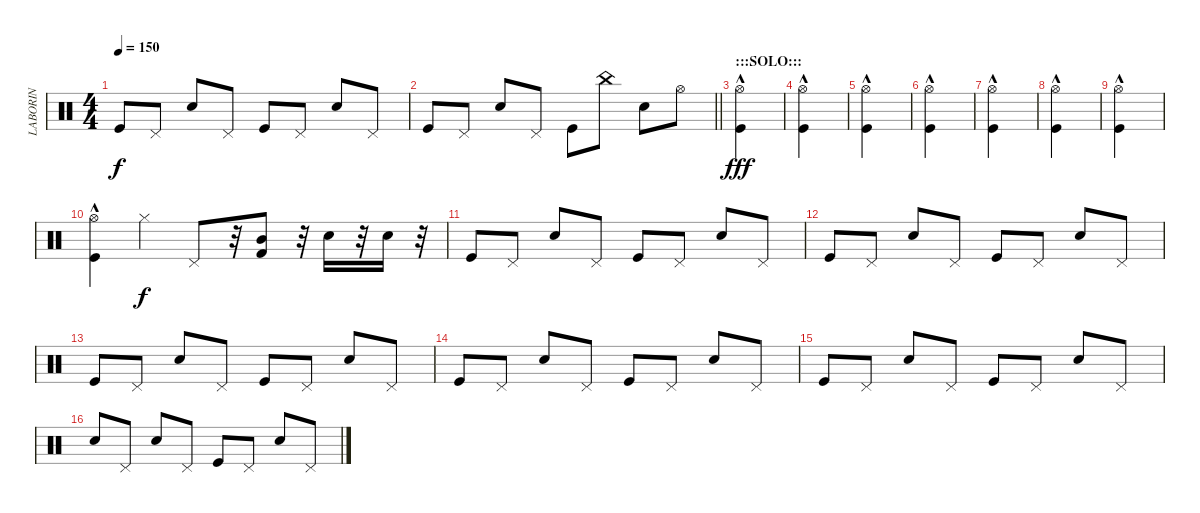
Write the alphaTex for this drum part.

\track ("LABORIN" "LABORIN") {instrument percussion}
\staff {score}
\articulation defaults
\ts (4 4)
\tempo 150
\clef neutral
\ks c "Kick (hit)".8{dy f} "Pedal Hi-Hat (hit)".8 "Snare (hit) 2".8 "Pedal Hi-Hat (hit)".8 "Kick (hit)".8 "Pedal Hi-Hat (hit)".8 "Snare (hit) 2".8 "Pedal Hi-Hat (hit)".8
|
\barLineRight lightlight "Kick (hit)".8 "Pedal Hi-Hat (hit)".8 "Snare (hit) 2".8 "Pedal Hi-Hat (hit)".8 "Kick (hit)".8 "China (hit)".8 "Snare (hit) 2".8 "Hi-Hat (open)".8
|
\section ("" ":::SOLO:::")
("Hi-Hat (open)"{hac} "Kick (hit)"{hac}).4{dy fff} |
("Hi-Hat (open)"{hac} "Kick (hit)"{hac}).4 |
("Hi-Hat (open)"{hac} "Kick (hit)"{hac}).4 |
("Hi-Hat (open)"{hac} "Kick (hit)"{hac}).4 |
("Hi-Hat (open)"{hac} "Kick (hit)"{hac}).4 |
("Hi-Hat (open)"{hac} "Kick (hit)"{hac}).4 |
("Hi-Hat (open)"{hac} "Kick (hit)"{hac}).4 |
("Hi-Hat (open)"{hac} "Kick (hit)"{hac}).4 "Hi-Hat (closed)".4{dy f} "Pedal Hi-Hat (hit)".8 r.32 ("Mid Tom (hit)" "Kick (hit) 2").8 r.32 "Snare (hit) 2".16 r.32 "Snare (hit) 2".16 r.32 |
"Kick (hit)".8 "Pedal Hi-Hat (hit)".8 "Snare (hit) 2".8 "Pedal Hi-Hat (hit)".8 "Kick (hit)".8 "Pedal Hi-Hat (hit)".8 "Snare (hit) 2".8 "Pedal Hi-Hat (hit)".8 |
"Kick (hit)".8 "Pedal Hi-Hat (hit)".8 "Snare (hit) 2".8 "Pedal Hi-Hat (hit)".8 "Kick (hit)".8 "Pedal Hi-Hat (hit)".8 "Snare (hit) 2".8 "Pedal Hi-Hat (hit)".8 |
"Kick (hit)".8 "Pedal Hi-Hat (hit)".8 "Snare (hit) 2".8 "Pedal Hi-Hat (hit)".8 "Kick (hit)".8 "Pedal Hi-Hat (hit)".8 "Snare (hit) 2".8 "Pedal Hi-Hat (hit)".8 |
"Kick (hit)".8 "Pedal Hi-Hat (hit)".8 "Snare (hit) 2".8 "Pedal Hi-Hat (hit)".8 "Kick (hit)".8 "Pedal Hi-Hat (hit)".8 "Snare (hit) 2".8 "Pedal Hi-Hat (hit)".8 |
"Kick (hit)".8 "Pedal Hi-Hat (hit)".8 "Snare (hit) 2".8 "Pedal Hi-Hat (hit)".8 "Kick (hit)".8 "Pedal Hi-Hat (hit)".8 "Snare (hit) 2".8 "Pedal Hi-Hat (hit)".8 |
"Snare (hit) 2".8 "Pedal Hi-Hat (hit)".8 "Snare (hit) 2".8 "Pedal Hi-Hat (hit)".8 "Kick (hit)".8 "Pedal Hi-Hat (hit)".8 "Snare (hit) 2".8 "Pedal Hi-Hat (hit)".8
